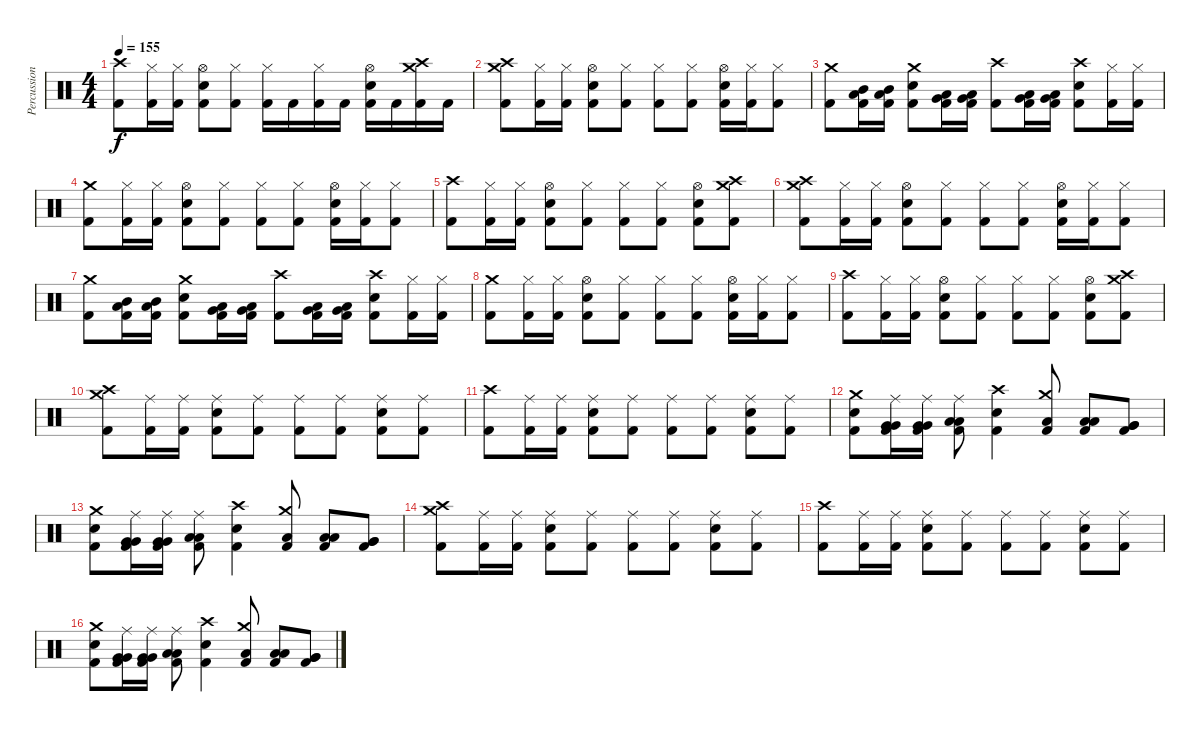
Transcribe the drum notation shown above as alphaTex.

\track ("Percussion" "Percussion") {instrument percussion}
\staff {score}
\articulation defaults
\ts (4 4)
\tempo 155
\clef neutral
\ks c
("Crash high (hit)" "Kick (hit) 2").8{dy f} ("Hi-Hat (closed)" "Kick (hit) 2").16 ("Hi-Hat (closed)" "Kick (hit) 2").16 ("Hi-Hat (open)" "Electric Snare (hit)" "Kick (hit) 2").8 ("Hi-Hat (closed)" "Kick (hit) 2").8 ("Hi-Hat (closed)" "Kick (hit) 2").16 "Kick (hit) 2".16 ("Hi-Hat (closed)" "Kick (hit) 2").16 "Kick (hit) 2".16 ("Hi-Hat (open)" "Electric Snare (hit)" "Kick (hit) 2").16 "Kick (hit) 2".16 ("Crash high (hit)" "Crash medium (hit)" "Kick (hit) 2").16 "Kick (hit) 2".16 |
("Crash high (hit)" "Crash medium (hit)" "Kick (hit) 2").8 ("Hi-Hat (closed)" "Kick (hit) 2").16 ("Hi-Hat (closed)" "Kick (hit) 2").16 ("Hi-Hat (open)" "Electric Snare (hit)" "Kick (hit) 2").8 ("Hi-Hat (closed)" "Kick (hit) 2").8 ("Hi-Hat (closed)" "Kick (hit) 2").8 ("Hi-Hat (closed)" "Kick (hit) 2").8 ("Hi-Hat (open)" "Electric Snare (hit)" "Kick (hit) 2").16 ("Hi-Hat (closed)" "Kick (hit) 2").16 ("Hi-Hat (closed)" "Kick (hit) 2").8 |
("Crash medium (hit)" "Kick (hit) 2").8 ("Mid Tom (hit)" "Low Tom (hit)" "Kick (hit) 2").16 ("Mid Tom (hit)" "Low Tom (hit)" "Kick (hit) 2").16 ("Crash medium (hit)" "Electric Snare (hit)" "Kick (hit) 2").8 ("Low Tom (hit)" "Very Low Tom (hit)" "Kick (hit) 2").16 ("Low Tom (hit)" "Very Low Tom (hit)" "Kick (hit) 2").16 ("Crash high (hit)" "Kick (hit) 2").8 ("Very Low Tom (hit)" "Low Floor Tom (hit)" "Kick (hit) 2").16 ("Very Low Tom (hit)" "Low Floor Tom (hit)" "Kick (hit) 2").16 ("Crash high (hit)" "Electric Snare (hit)" "Kick (hit) 2").8 ("Hi-Hat (closed)" "Kick (hit) 2").16 ("Hi-Hat (closed)" "Kick (hit) 2").16 |
("Crash medium (hit)" "Kick (hit) 2").8 ("Hi-Hat (closed)" "Kick (hit) 2").16 ("Hi-Hat (closed)" "Kick (hit) 2").16 ("Hi-Hat (open)" "Electric Snare (hit)" "Kick (hit) 2").8 ("Hi-Hat (closed)" "Kick (hit) 2").8 ("Hi-Hat (closed)" "Kick (hit) 2").8 ("Hi-Hat (closed)" "Kick (hit) 2").8 ("Hi-Hat (open)" "Electric Snare (hit)" "Kick (hit) 2").16 ("Hi-Hat (closed)" "Kick (hit) 2").16 ("Hi-Hat (closed)" "Kick (hit) 2").8 |
("Crash high (hit)" "Kick (hit) 2").8 ("Hi-Hat (closed)" "Kick (hit) 2").16 ("Hi-Hat (closed)" "Kick (hit) 2").16 ("Hi-Hat (open)" "Electric Snare (hit)" "Kick (hit) 2").8 ("Hi-Hat (closed)" "Kick (hit) 2").8 ("Hi-Hat (closed)" "Kick (hit) 2").8 ("Hi-Hat (closed)" "Kick (hit) 2").8 ("Hi-Hat (open)" "Electric Snare (hit)" "Kick (hit) 2").8 ("Crash high (hit)" "Crash medium (hit)" "Kick (hit) 2").8 |
("Crash high (hit)" "Crash medium (hit)" "Kick (hit) 2").8 ("Hi-Hat (closed)" "Kick (hit) 2").16 ("Hi-Hat (closed)" "Kick (hit) 2").16 ("Hi-Hat (open)" "Electric Snare (hit)" "Kick (hit) 2").8 ("Hi-Hat (closed)" "Kick (hit) 2").8 ("Hi-Hat (closed)" "Kick (hit) 2").8 ("Hi-Hat (closed)" "Kick (hit) 2").8 ("Hi-Hat (open)" "Electric Snare (hit)" "Kick (hit) 2").16 ("Hi-Hat (closed)" "Kick (hit) 2").16 ("Hi-Hat (closed)" "Kick (hit) 2").8 |
("Crash medium (hit)" "Kick (hit) 2").8 ("Mid Tom (hit)" "Low Tom (hit)" "Kick (hit) 2").16 ("Mid Tom (hit)" "Low Tom (hit)" "Kick (hit) 2").16 ("Crash medium (hit)" "Electric Snare (hit)" "Kick (hit) 2").8 ("Low Tom (hit)" "Very Low Tom (hit)" "Kick (hit) 2").16 ("Low Tom (hit)" "Very Low Tom (hit)" "Kick (hit) 2").16 ("Crash high (hit)" "Kick (hit) 2").8 ("Very Low Tom (hit)" "Low Floor Tom (hit)" "Kick (hit) 2").16 ("Very Low Tom (hit)" "Low Floor Tom (hit)" "Kick (hit) 2").16 ("Crash high (hit)" "Electric Snare (hit)" "Kick (hit) 2").8 ("Hi-Hat (closed)" "Kick (hit) 2").16 ("Hi-Hat (closed)" "Kick (hit) 2").16 |
("Crash medium (hit)" "Kick (hit) 2").8 ("Hi-Hat (closed)" "Kick (hit) 2").16 ("Hi-Hat (closed)" "Kick (hit) 2").16 ("Hi-Hat (open)" "Electric Snare (hit)" "Kick (hit) 2").8 ("Hi-Hat (closed)" "Kick (hit) 2").8 ("Hi-Hat (closed)" "Kick (hit) 2").8 ("Hi-Hat (closed)" "Kick (hit) 2").8 ("Hi-Hat (open)" "Electric Snare (hit)" "Kick (hit) 2").16 ("Hi-Hat (closed)" "Kick (hit) 2").16 ("Hi-Hat (closed)" "Kick (hit) 2").8 |
("Crash high (hit)" "Kick (hit) 2").8 ("Hi-Hat (closed)" "Kick (hit) 2").16 ("Hi-Hat (closed)" "Kick (hit) 2").16 ("Hi-Hat (open)" "Electric Snare (hit)" "Kick (hit) 2").8 ("Hi-Hat (closed)" "Kick (hit) 2").8 ("Hi-Hat (closed)" "Kick (hit) 2").8 ("Hi-Hat (closed)" "Kick (hit) 2").8 ("Hi-Hat (open)" "Electric Snare (hit)" "Kick (hit) 2").8 ("Crash high (hit)" "Crash medium (hit)" "Kick (hit) 2").8 |
("Crash high (hit)" "Crash medium (hit)" "Kick (hit) 2").8 ("Ride (middle)" "Kick (hit) 2").16 ("Ride (middle)" "Kick (hit) 2").16 ("Ride (middle)" "Electric Snare (hit)" "Kick (hit) 2").8 ("Ride (middle)" "Kick (hit) 2").8 ("Ride (middle)" "Kick (hit) 2").8 ("Ride (middle)" "Kick (hit) 2").8 ("Ride (middle)" "Electric Snare (hit)" "Kick (hit) 2").8 ("Ride (middle)" "Kick (hit) 2").8 |
("Crash high (hit)" "Kick (hit) 2").8 ("Ride (middle)" "Kick (hit) 2").16 ("Ride (middle)" "Kick (hit) 2").16 ("Ride (middle)" "Electric Snare (hit)" "Kick (hit) 2").8 ("Ride (middle)" "Kick (hit) 2").8 ("Ride (middle)" "Kick (hit) 2").8 ("Ride (middle)" "Kick (hit) 2").8 ("Ride (middle)" "Electric Snare (hit)" "Kick (hit) 2").8 ("Ride (middle)" "Kick (hit) 2").8 |
("Crash medium (hit)" "Electric Snare (hit)" "Kick (hit) 2").8 ("Ride (middle)" "Very Low Tom (hit)" "Very Low Tom (hit)" "Kick (hit) 2").16 ("Ride (middle)" "Very Low Tom (hit)" "Very Low Tom (hit)" "Kick (hit) 2").16 ("Ride (middle)" "Low Floor Tom (hit)" "Low Floor Tom (hit)" "Kick (hit) 2").8 ("Crash high (hit)" "Electric Snare (hit)" "Kick (hit) 2").4 ("Crash medium (hit)" "Low Floor Tom (hit)" "Kick (hit) 2").8 ("Low Tom (hit)" "Low Tom (hit)" "Kick (hit) 2").8 ("Very Low Tom (hit)" "Very Low Tom (hit)" "Kick (hit) 2").8 |
("Crash medium (hit)" "Electric Snare (hit)" "Kick (hit) 2").8 ("Ride (middle)" "Very Low Tom (hit)" "Very Low Tom (hit)" "Kick (hit) 2").16 ("Ride (middle)" "Very Low Tom (hit)" "Very Low Tom (hit)" "Kick (hit) 2").16 ("Ride (middle)" "Low Floor Tom (hit)" "Low Floor Tom (hit)" "Kick (hit) 2").8 ("Crash high (hit)" "Electric Snare (hit)" "Kick (hit) 2").4 ("Crash medium (hit)" "Low Floor Tom (hit)" "Kick (hit) 2").8 ("Low Tom (hit)" "Low Tom (hit)" "Kick (hit) 2").8 ("Very Low Tom (hit)" "Very Low Tom (hit)" "Kick (hit) 2").8 |
("Crash high (hit)" "Crash medium (hit)" "Kick (hit) 2").8 ("Ride (middle)" "Kick (hit) 2").16 ("Ride (middle)" "Kick (hit) 2").16 ("Ride (middle)" "Electric Snare (hit)" "Kick (hit) 2").8 ("Ride (middle)" "Kick (hit) 2").8 ("Ride (middle)" "Kick (hit) 2").8 ("Ride (middle)" "Kick (hit) 2").8 ("Ride (middle)" "Electric Snare (hit)" "Kick (hit) 2").8 ("Ride (middle)" "Kick (hit) 2").8 |
("Crash high (hit)" "Kick (hit) 2").8 ("Ride (middle)" "Kick (hit) 2").16 ("Ride (middle)" "Kick (hit) 2").16 ("Ride (middle)" "Electric Snare (hit)" "Kick (hit) 2").8 ("Ride (middle)" "Kick (hit) 2").8 ("Ride (middle)" "Kick (hit) 2").8 ("Ride (middle)" "Kick (hit) 2").8 ("Ride (middle)" "Electric Snare (hit)" "Kick (hit) 2").8 ("Ride (middle)" "Kick (hit) 2").8 |
("Crash medium (hit)" "Electric Snare (hit)" "Kick (hit) 2").8 ("Ride (middle)" "Very Low Tom (hit)" "Very Low Tom (hit)" "Kick (hit) 2").16 ("Ride (middle)" "Very Low Tom (hit)" "Very Low Tom (hit)" "Kick (hit) 2").16 ("Ride (middle)" "Low Floor Tom (hit)" "Low Floor Tom (hit)" "Kick (hit) 2").8 ("Crash high (hit)" "Electric Snare (hit)" "Kick (hit) 2").4 ("Crash medium (hit)" "Low Floor Tom (hit)" "Kick (hit) 2").8 ("Low Tom (hit)" "Low Tom (hit)" "Kick (hit) 2").8 ("Very Low Tom (hit)" "Very Low Tom (hit)" "Kick (hit) 2").8
